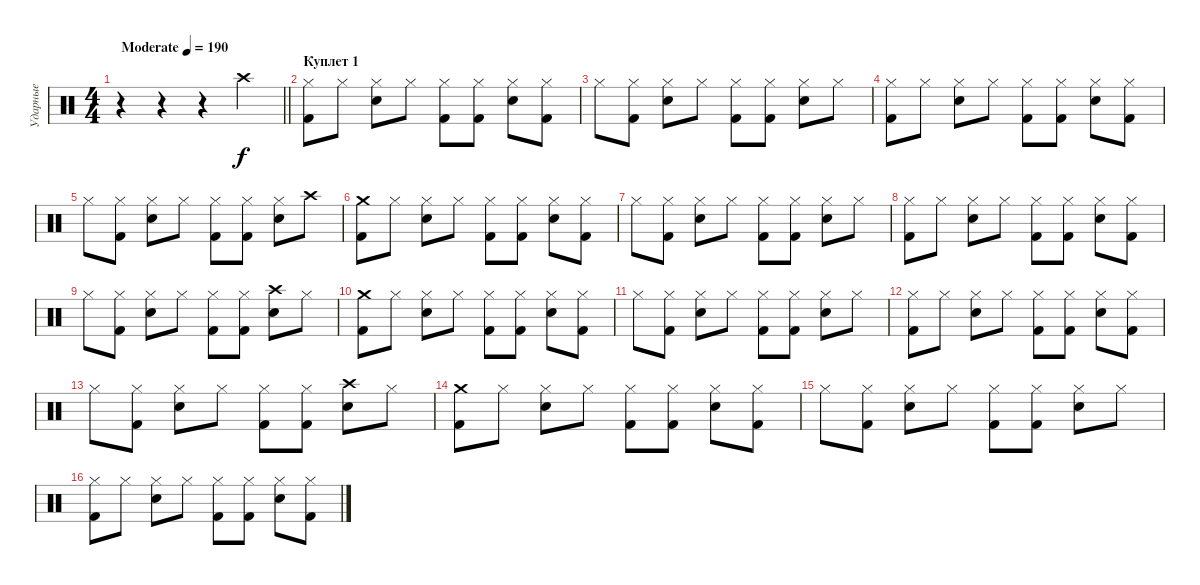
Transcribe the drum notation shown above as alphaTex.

\track ("Ударные" "Ударные") {instrument percussion}
\staff {score}
\articulation defaults
\ts (4 4)
\tempo (190 "Moderate")
\clef neutral
\barLineRight lightlight
\ks c
r.4{dy f} r.4 r.4 "Crash high (hit)".4 |
\section ("" "Куплет 1")
("Hi-Hat (closed)" "Kick (hit) 2").8 "Hi-Hat (closed)".8 ("Hi-Hat (closed)" "Electric Snare (hit)").8 "Hi-Hat (closed)".8 ("Hi-Hat (closed)" "Kick (hit) 2").8 ("Hi-Hat (closed)" "Kick (hit) 2").8 ("Hi-Hat (closed)" "Electric Snare (hit)").8 ("Hi-Hat (closed)" "Kick (hit) 2").8 |
"Hi-Hat (closed)".8 ("Hi-Hat (closed)" "Kick (hit) 2").8 ("Hi-Hat (closed)" "Electric Snare (hit)").8 "Hi-Hat (closed)".8 ("Hi-Hat (closed)" "Kick (hit) 2").8 ("Hi-Hat (closed)" "Kick (hit) 2").8 ("Hi-Hat (closed)" "Electric Snare (hit)").8 "Hi-Hat (closed)".8 |
("Hi-Hat (closed)" "Kick (hit) 2").8 "Hi-Hat (closed)".8 ("Hi-Hat (closed)" "Electric Snare (hit)").8 "Hi-Hat (closed)".8 ("Hi-Hat (closed)" "Kick (hit) 2").8 ("Hi-Hat (closed)" "Kick (hit) 2").8 ("Hi-Hat (closed)" "Electric Snare (hit)").8 ("Hi-Hat (closed)" "Kick (hit) 2").8 |
"Hi-Hat (closed)".8 ("Hi-Hat (closed)" "Kick (hit) 2").8 ("Hi-Hat (closed)" "Electric Snare (hit)").8 "Hi-Hat (closed)".8 ("Hi-Hat (closed)" "Kick (hit) 2").8 ("Hi-Hat (closed)" "Kick (hit) 2").8 ("Hi-Hat (closed)" "Electric Snare (hit)").8 "Crash high (hit)".8 |
("Crash medium (hit)" "Kick (hit) 2").8 "Hi-Hat (closed)".8 ("Hi-Hat (closed)" "Electric Snare (hit)").8 "Hi-Hat (closed)".8 ("Hi-Hat (closed)" "Kick (hit) 2").8 ("Hi-Hat (closed)" "Kick (hit) 2").8 ("Hi-Hat (closed)" "Electric Snare (hit)").8 ("Hi-Hat (closed)" "Kick (hit) 2").8 |
"Hi-Hat (closed)".8 ("Hi-Hat (closed)" "Kick (hit) 2").8 ("Hi-Hat (closed)" "Electric Snare (hit)").8 "Hi-Hat (closed)".8 ("Hi-Hat (closed)" "Kick (hit) 2").8 ("Hi-Hat (closed)" "Kick (hit) 2").8 ("Hi-Hat (closed)" "Electric Snare (hit)").8 "Hi-Hat (closed)".8 |
("Hi-Hat (closed)" "Kick (hit) 2").8 "Hi-Hat (closed)".8 ("Hi-Hat (closed)" "Electric Snare (hit)").8 "Hi-Hat (closed)".8 ("Hi-Hat (closed)" "Kick (hit) 2").8 ("Hi-Hat (closed)" "Kick (hit) 2").8 ("Hi-Hat (closed)" "Electric Snare (hit)").8 ("Hi-Hat (closed)" "Kick (hit) 2").8 |
"Hi-Hat (closed)".8 ("Hi-Hat (closed)" "Kick (hit) 2").8 ("Hi-Hat (closed)" "Electric Snare (hit)").8 "Hi-Hat (closed)".8 ("Hi-Hat (closed)" "Kick (hit) 2").8 ("Hi-Hat (closed)" "Kick (hit) 2").8 ("Crash high (hit)" "Electric Snare (hit)").8 "Hi-Hat (closed)".8 |
("Crash medium (hit)" "Kick (hit) 2").8 "Hi-Hat (closed)".8 ("Hi-Hat (closed)" "Electric Snare (hit)").8 "Hi-Hat (closed)".8 ("Hi-Hat (closed)" "Kick (hit) 2").8 ("Hi-Hat (closed)" "Kick (hit) 2").8 ("Hi-Hat (closed)" "Electric Snare (hit)").8 ("Hi-Hat (closed)" "Kick (hit) 2").8 |
"Hi-Hat (closed)".8 ("Hi-Hat (closed)" "Kick (hit) 2").8 ("Hi-Hat (closed)" "Electric Snare (hit)").8 "Hi-Hat (closed)".8 ("Hi-Hat (closed)" "Kick (hit) 2").8 ("Hi-Hat (closed)" "Kick (hit) 2").8 ("Hi-Hat (closed)" "Electric Snare (hit)").8 "Hi-Hat (closed)".8 |
("Hi-Hat (closed)" "Kick (hit) 2").8 "Hi-Hat (closed)".8 ("Hi-Hat (closed)" "Electric Snare (hit)").8 "Hi-Hat (closed)".8 ("Hi-Hat (closed)" "Kick (hit) 2").8 ("Hi-Hat (closed)" "Kick (hit) 2").8 ("Hi-Hat (closed)" "Electric Snare (hit)").8 ("Hi-Hat (closed)" "Kick (hit) 2").8 |
"Hi-Hat (closed)".8 ("Hi-Hat (closed)" "Kick (hit) 2").8 ("Hi-Hat (closed)" "Electric Snare (hit)").8 "Hi-Hat (closed)".8 ("Hi-Hat (closed)" "Kick (hit) 2").8 ("Hi-Hat (closed)" "Kick (hit) 2").8 ("Crash high (hit)" "Electric Snare (hit)").8 "Hi-Hat (closed)".8 |
("Crash medium (hit)" "Kick (hit) 2").8 "Hi-Hat (closed)".8 ("Hi-Hat (closed)" "Electric Snare (hit)").8 "Hi-Hat (closed)".8 ("Hi-Hat (closed)" "Kick (hit) 2").8 ("Hi-Hat (closed)" "Kick (hit) 2").8 ("Hi-Hat (closed)" "Electric Snare (hit)").8 ("Hi-Hat (closed)" "Kick (hit) 2").8 |
"Hi-Hat (closed)".8 ("Hi-Hat (closed)" "Kick (hit) 2").8 ("Hi-Hat (closed)" "Electric Snare (hit)").8 "Hi-Hat (closed)".8 ("Hi-Hat (closed)" "Kick (hit) 2").8 ("Hi-Hat (closed)" "Kick (hit) 2").8 ("Hi-Hat (closed)" "Electric Snare (hit)").8 "Hi-Hat (closed)".8 |
("Hi-Hat (closed)" "Kick (hit) 2").8 "Hi-Hat (closed)".8 ("Hi-Hat (closed)" "Electric Snare (hit)").8 "Hi-Hat (closed)".8 ("Hi-Hat (closed)" "Kick (hit) 2").8 ("Hi-Hat (closed)" "Kick (hit) 2").8 ("Hi-Hat (closed)" "Electric Snare (hit)").8 ("Hi-Hat (closed)" "Kick (hit) 2").8
